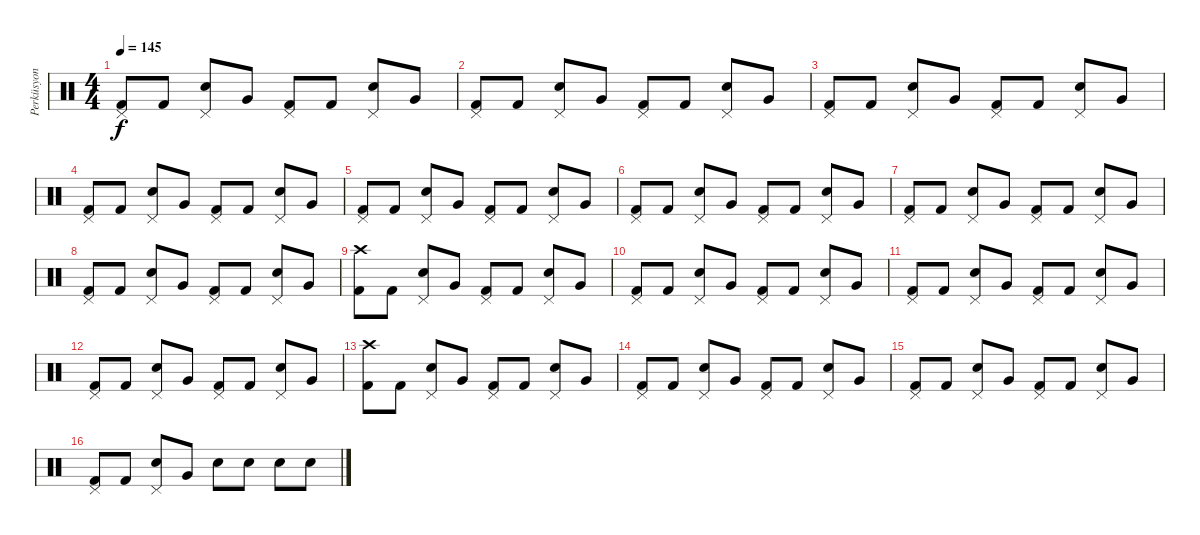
\track ("Perküsyon" "Perküsyon") {instrument percussion}
\staff {score}
\articulation defaults
\ts (4 4)
\tempo 145
\clef neutral
\ks c
("Pedal Hi-Hat (hit)" "Kick (hit) 2").8{dy f} "Kick (hit) 2".8 ("Pedal Hi-Hat (hit)" "Snare (hit) 2").8 "Very Low Tom (hit)".8 ("Pedal Hi-Hat (hit)" "Kick (hit) 2").8 "Kick (hit) 2".8 ("Pedal Hi-Hat (hit)" "Snare (hit) 2").8 "Very Low Tom (hit)".8 |
("Pedal Hi-Hat (hit)" "Kick (hit) 2").8 "Kick (hit) 2".8 ("Pedal Hi-Hat (hit)" "Snare (hit) 2").8 "Very Low Tom (hit)".8 ("Pedal Hi-Hat (hit)" "Kick (hit) 2").8 "Kick (hit) 2".8 ("Pedal Hi-Hat (hit)" "Snare (hit) 2").8 "Very Low Tom (hit)".8 |
("Pedal Hi-Hat (hit)" "Kick (hit) 2").8 "Kick (hit) 2".8 ("Pedal Hi-Hat (hit)" "Snare (hit) 2").8 "Very Low Tom (hit)".8 ("Pedal Hi-Hat (hit)" "Kick (hit) 2").8 "Kick (hit) 2".8 ("Pedal Hi-Hat (hit)" "Snare (hit) 2").8 "Very Low Tom (hit)".8 |
("Pedal Hi-Hat (hit)" "Kick (hit) 2").8 "Kick (hit) 2".8 ("Pedal Hi-Hat (hit)" "Snare (hit) 2").8 "Very Low Tom (hit)".8 ("Pedal Hi-Hat (hit)" "Kick (hit) 2").8 "Kick (hit) 2".8 ("Pedal Hi-Hat (hit)" "Snare (hit) 2").8 "Very Low Tom (hit)".8 |
("Pedal Hi-Hat (hit)" "Kick (hit) 2").8 "Kick (hit) 2".8 ("Pedal Hi-Hat (hit)" "Snare (hit) 2").8 "Very Low Tom (hit)".8 ("Pedal Hi-Hat (hit)" "Kick (hit) 2").8 "Kick (hit) 2".8 ("Pedal Hi-Hat (hit)" "Snare (hit) 2").8 "Very Low Tom (hit)".8 |
("Pedal Hi-Hat (hit)" "Kick (hit) 2").8 "Kick (hit) 2".8 ("Pedal Hi-Hat (hit)" "Snare (hit) 2").8 "Very Low Tom (hit)".8 ("Pedal Hi-Hat (hit)" "Kick (hit) 2").8 "Kick (hit) 2".8 ("Pedal Hi-Hat (hit)" "Snare (hit) 2").8 "Very Low Tom (hit)".8 |
("Pedal Hi-Hat (hit)" "Kick (hit) 2").8 "Kick (hit) 2".8 ("Pedal Hi-Hat (hit)" "Snare (hit) 2").8 "Very Low Tom (hit)".8 ("Pedal Hi-Hat (hit)" "Kick (hit) 2").8 "Kick (hit) 2".8 ("Pedal Hi-Hat (hit)" "Snare (hit) 2").8 "Very Low Tom (hit)".8 |
("Pedal Hi-Hat (hit)" "Kick (hit) 2").8 "Kick (hit) 2".8 ("Pedal Hi-Hat (hit)" "Snare (hit) 2").8 "Very Low Tom (hit)".8 ("Pedal Hi-Hat (hit)" "Kick (hit) 2").8 "Kick (hit) 2".8 ("Pedal Hi-Hat (hit)" "Snare (hit) 2").8 "Very Low Tom (hit)".8 |
("Crash high (hit)" "Kick (hit) 2").8 "Kick (hit) 2".8 ("Pedal Hi-Hat (hit)" "Snare (hit) 2").8 "Very Low Tom (hit)".8 ("Pedal Hi-Hat (hit)" "Kick (hit) 2").8 "Kick (hit) 2".8 ("Pedal Hi-Hat (hit)" "Snare (hit) 2").8 "Very Low Tom (hit)".8 |
("Pedal Hi-Hat (hit)" "Kick (hit) 2").8 "Kick (hit) 2".8 ("Pedal Hi-Hat (hit)" "Snare (hit) 2").8 "Very Low Tom (hit)".8 ("Pedal Hi-Hat (hit)" "Kick (hit) 2").8 "Kick (hit) 2".8 ("Pedal Hi-Hat (hit)" "Snare (hit) 2").8 "Very Low Tom (hit)".8 |
("Pedal Hi-Hat (hit)" "Kick (hit) 2").8 "Kick (hit) 2".8 ("Pedal Hi-Hat (hit)" "Snare (hit) 2").8 "Very Low Tom (hit)".8 ("Pedal Hi-Hat (hit)" "Kick (hit) 2").8 "Kick (hit) 2".8 ("Pedal Hi-Hat (hit)" "Snare (hit) 2").8 "Very Low Tom (hit)".8 |
("Pedal Hi-Hat (hit)" "Kick (hit) 2").8 "Kick (hit) 2".8 ("Pedal Hi-Hat (hit)" "Snare (hit) 2").8 "Very Low Tom (hit)".8 ("Pedal Hi-Hat (hit)" "Kick (hit) 2").8 "Kick (hit) 2".8 ("Pedal Hi-Hat (hit)" "Snare (hit) 2").8 "Very Low Tom (hit)".8 |
("Crash high (hit)" "Kick (hit) 2").8 "Kick (hit) 2".8 ("Pedal Hi-Hat (hit)" "Snare (hit) 2").8 "Very Low Tom (hit)".8 ("Pedal Hi-Hat (hit)" "Kick (hit) 2").8 "Kick (hit) 2".8 ("Pedal Hi-Hat (hit)" "Snare (hit) 2").8 "Very Low Tom (hit)".8 |
("Pedal Hi-Hat (hit)" "Kick (hit) 2").8 "Kick (hit) 2".8 ("Pedal Hi-Hat (hit)" "Snare (hit) 2").8 "Very Low Tom (hit)".8 ("Pedal Hi-Hat (hit)" "Kick (hit) 2").8 "Kick (hit) 2".8 ("Pedal Hi-Hat (hit)" "Snare (hit) 2").8 "Very Low Tom (hit)".8 |
("Pedal Hi-Hat (hit)" "Kick (hit) 2").8 "Kick (hit) 2".8 ("Pedal Hi-Hat (hit)" "Snare (hit) 2").8 "Very Low Tom (hit)".8 ("Pedal Hi-Hat (hit)" "Kick (hit) 2").8 "Kick (hit) 2".8 ("Pedal Hi-Hat (hit)" "Snare (hit) 2").8 "Very Low Tom (hit)".8 |
("Pedal Hi-Hat (hit)" "Kick (hit) 2").8 "Kick (hit) 2".8 ("Pedal Hi-Hat (hit)" "Snare (hit) 2").8 "Very Low Tom (hit)".8 "Snare (hit) 2".8 "Snare (hit) 2".8 "Snare (hit) 2".8 "Snare (hit) 2".8
